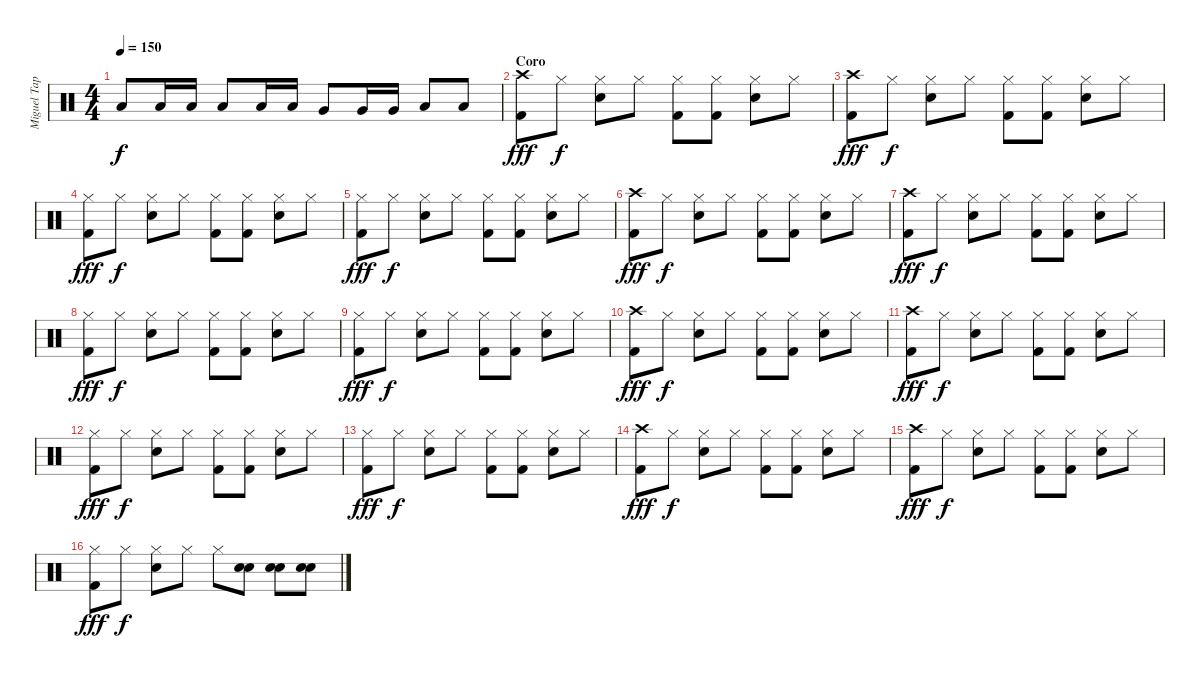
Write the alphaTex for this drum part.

\track ("Miguel Tapia" "Miguel Tap") {instrument percussion}
\staff {score}
\articulation defaults
\ts (4 4)
\tempo 150
\clef neutral
\ks c "Low Tom (hit)".8{dy f} "Low Tom (hit)".16 "Low Tom (hit)".16 "Low Tom (hit)".8 "Low Tom (hit)".16 "Low Tom (hit)".16 "Very Low Tom (hit)".8 "Very Low Tom (hit)".16 "Very Low Tom (hit)".16 "Low Floor Tom (hit)".8 "Low Floor Tom (hit)".8
|
\section ("" "Coro")
("Crash high (hit)" "Kick (hit) 2").8{dy fff} "Hi-Hat (closed)".8{dy f} ("Hi-Hat (closed)" "Snare (hit) 2").8 "Hi-Hat (closed)".8 ("Hi-Hat (closed)" "Kick (hit) 2").8 ("Hi-Hat (closed)" "Kick (hit) 2").8 ("Hi-Hat (closed)" "Snare (hit) 2").8 "Hi-Hat (closed)".8 |
("Crash high (hit)" "Kick (hit) 2").8{dy fff} "Hi-Hat (closed)".8{dy f} ("Hi-Hat (closed)" "Snare (hit) 2").8 "Hi-Hat (closed)".8 ("Hi-Hat (closed)" "Kick (hit) 2").8 ("Hi-Hat (closed)" "Kick (hit) 2").8 ("Hi-Hat (closed)" "Snare (hit) 2").8 "Hi-Hat (closed)".8 |
("Hi-Hat (closed)" "Kick (hit) 2").8{dy fff} "Hi-Hat (closed)".8{dy f} ("Hi-Hat (closed)" "Snare (hit) 2").8 "Hi-Hat (closed)".8 ("Hi-Hat (closed)" "Kick (hit) 2").8 ("Hi-Hat (closed)" "Kick (hit) 2").8 ("Hi-Hat (closed)" "Snare (hit) 2").8 "Hi-Hat (closed)".8 |
("Hi-Hat (closed)" "Kick (hit) 2").8{dy fff} "Hi-Hat (closed)".8{dy f} ("Hi-Hat (closed)" "Snare (hit) 2").8 "Hi-Hat (closed)".8 ("Hi-Hat (closed)" "Kick (hit) 2").8 ("Hi-Hat (closed)" "Kick (hit) 2").8 ("Hi-Hat (closed)" "Snare (hit) 2").8 "Hi-Hat (closed)".8 |
("Crash high (hit)" "Kick (hit) 2").8{dy fff} "Hi-Hat (closed)".8{dy f} ("Hi-Hat (closed)" "Snare (hit) 2").8 "Hi-Hat (closed)".8 ("Hi-Hat (closed)" "Kick (hit) 2").8 ("Hi-Hat (closed)" "Kick (hit) 2").8 ("Hi-Hat (closed)" "Snare (hit) 2").8 "Hi-Hat (closed)".8 |
("Crash high (hit)" "Kick (hit) 2").8{dy fff} "Hi-Hat (closed)".8{dy f} ("Hi-Hat (closed)" "Snare (hit) 2").8 "Hi-Hat (closed)".8 ("Hi-Hat (closed)" "Kick (hit) 2").8 ("Hi-Hat (closed)" "Kick (hit) 2").8 ("Hi-Hat (closed)" "Snare (hit) 2").8 "Hi-Hat (closed)".8 |
("Hi-Hat (closed)" "Kick (hit) 2").8{dy fff} "Hi-Hat (closed)".8{dy f} ("Hi-Hat (closed)" "Snare (hit) 2").8 "Hi-Hat (closed)".8 ("Hi-Hat (closed)" "Kick (hit) 2").8 ("Hi-Hat (closed)" "Kick (hit) 2").8 ("Hi-Hat (closed)" "Snare (hit) 2").8 "Hi-Hat (closed)".8 |
("Hi-Hat (closed)" "Kick (hit) 2").8{dy fff} "Hi-Hat (closed)".8{dy f} ("Hi-Hat (closed)" "Snare (hit) 2").8 "Hi-Hat (closed)".8 ("Hi-Hat (closed)" "Kick (hit) 2").8 ("Hi-Hat (closed)" "Kick (hit) 2").8 ("Hi-Hat (closed)" "Snare (hit) 2").8 "Hi-Hat (closed)".8 |
("Crash high (hit)" "Kick (hit) 2").8{dy fff} "Hi-Hat (closed)".8{dy f} ("Hi-Hat (closed)" "Snare (hit) 2").8 "Hi-Hat (closed)".8 ("Hi-Hat (closed)" "Kick (hit) 2").8 ("Hi-Hat (closed)" "Kick (hit) 2").8 ("Hi-Hat (closed)" "Snare (hit) 2").8 "Hi-Hat (closed)".8 |
("Crash high (hit)" "Kick (hit) 2").8{dy fff} "Hi-Hat (closed)".8{dy f} ("Hi-Hat (closed)" "Snare (hit) 2").8 "Hi-Hat (closed)".8 ("Hi-Hat (closed)" "Kick (hit) 2").8 ("Hi-Hat (closed)" "Kick (hit) 2").8 ("Hi-Hat (closed)" "Snare (hit) 2").8 "Hi-Hat (closed)".8 |
("Hi-Hat (closed)" "Kick (hit) 2").8{dy fff} "Hi-Hat (closed)".8{dy f} ("Hi-Hat (closed)" "Snare (hit) 2").8 "Hi-Hat (closed)".8 ("Hi-Hat (closed)" "Kick (hit) 2").8 ("Hi-Hat (closed)" "Kick (hit) 2").8 ("Hi-Hat (closed)" "Snare (hit) 2").8 "Hi-Hat (closed)".8 |
("Hi-Hat (closed)" "Kick (hit) 2").8{dy fff} "Hi-Hat (closed)".8{dy f} ("Hi-Hat (closed)" "Snare (hit) 2").8 "Hi-Hat (closed)".8 ("Hi-Hat (closed)" "Kick (hit) 2").8 ("Hi-Hat (closed)" "Kick (hit) 2").8 ("Hi-Hat (closed)" "Snare (hit) 2").8 "Hi-Hat (closed)".8 |
("Crash high (hit)" "Kick (hit) 2").8{dy fff} "Hi-Hat (closed)".8{dy f} ("Hi-Hat (closed)" "Snare (hit) 2").8 "Hi-Hat (closed)".8 ("Hi-Hat (closed)" "Kick (hit) 2").8 ("Hi-Hat (closed)" "Kick (hit) 2").8 ("Hi-Hat (closed)" "Snare (hit) 2").8 "Hi-Hat (closed)".8 |
("Crash high (hit)" "Kick (hit) 2").8{dy fff} "Hi-Hat (closed)".8{dy f} ("Hi-Hat (closed)" "Snare (hit) 2").8 "Hi-Hat (closed)".8 ("Hi-Hat (closed)" "Kick (hit) 2").8 ("Hi-Hat (closed)" "Kick (hit) 2").8 ("Hi-Hat (closed)" "Snare (hit) 2").8 "Hi-Hat (closed)".8 |
("Hi-Hat (closed)" "Kick (hit) 2").8{dy fff} "Hi-Hat (closed)".8{dy f} ("Hi-Hat (closed)" "Snare (hit) 2").8 "Hi-Hat (closed)".8 "Hi-Hat (closed)".8 ("Snare (hit) 2" "Snare (hit) 2").8 ("Snare (hit) 2" "Snare (hit) 2").8 ("Snare (hit) 2" "Snare (hit) 2").8
